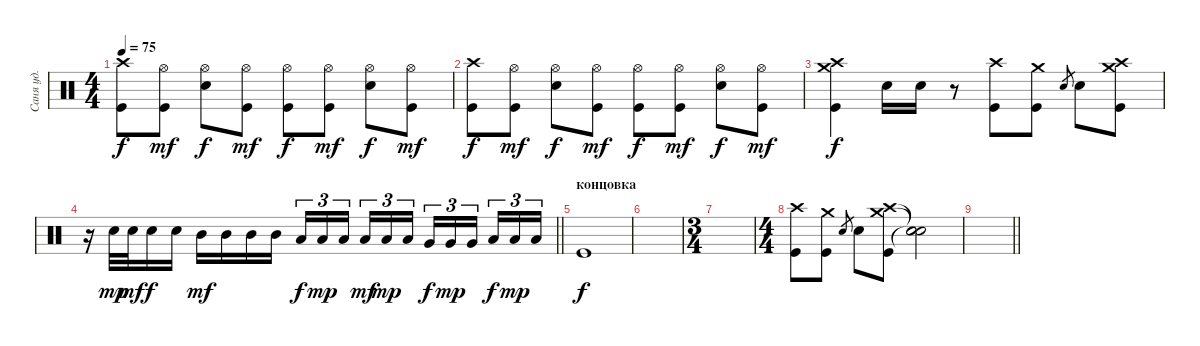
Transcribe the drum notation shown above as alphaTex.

\track ("Саня уд." "Саня уд.") {instrument percussion}
\staff {score}
\articulation defaults
\ts (4 4)
\tempo 75
\clef neutral
\ks c
("Kick (hit)" "Crash high (hit)").8{dy f} ("Kick (hit)" "Hi-Hat (open)").8{dy mf} ("Snare (hit) 2" "Hi-Hat (open)").8{dy f} ("Kick (hit)" "Hi-Hat (open)").8{dy mf} ("Kick (hit)" "Hi-Hat (open)").8{dy f} ("Kick (hit)" "Hi-Hat (open)").8{dy mf} ("Snare (hit) 2" "Hi-Hat (open)").8{dy f} ("Kick (hit)" "Hi-Hat (open)").8{dy mf} |
("Kick (hit)" "Crash high (hit)").8{dy f} ("Kick (hit)" "Hi-Hat (open)").8{dy mf} ("Snare (hit) 2" "Hi-Hat (open)").8{dy f} ("Kick (hit)" "Hi-Hat (open)").8{dy mf} ("Kick (hit)" "Hi-Hat (open)").8{dy f} ("Kick (hit)" "Hi-Hat (open)").8{dy mf} ("Snare (hit) 2" "Hi-Hat (open)").8{dy f} ("Kick (hit)" "Hi-Hat (open)").8{dy mf} |
("Crash high (hit)" "Crash medium (hit)" "Kick (hit)").4{dy f} "Snare (hit) 2".16 "Snare (hit) 2".16 r.8 ("Crash high (hit)" "Kick (hit)").8 ("Crash medium (hit)" "Kick (hit)").8 "Snare (hit) 2".8{gr} "Snare (hit) 2".8 ("Crash medium (hit)" "Crash high (hit)" "Kick (hit)").8 |
\barLineRight lightlight
r.16 "Snare (hit) 2".32{dy mp} "Snare (hit) 2".32{dy mf} "Snare (hit) 2".16{dy f} "Snare (hit) 2".16 "Mid Tom (hit)".16{dy mf} "Mid Tom (hit)".16 "Mid Tom (hit)".16 "Mid Tom (hit)".16 "Low Tom (hit)".16{tu (3 2) dy f} "Low Tom (hit)".16{tu (3 2) dy mp} "Low Tom (hit)".16{tu (3 2) beam splitsecondary} "Low Tom (hit)".16{tu (3 2) dy mf} "Low Tom (hit)".16{tu (3 2) dy mp} "Low Tom (hit)".16{tu (3 2)} "Very Low Tom (hit)".16{tu (3 2) dy f} "Very Low Tom (hit)".16{tu (3 2) dy mp} "Very Low Tom (hit)".16{tu (3 2) beam splitsecondary} "Low Floor Tom (hit)".16{tu (3 2) dy f} "Low Floor Tom (hit)".16{tu (3 2) dy mp} "Low Floor Tom (hit)".16{tu (3 2)} |
\section ("" "концовка")
"Kick (hit)".1{dy f} |
|
\ts (3 4)
|
\ts (4 4)
("Crash high (hit)" "Kick (hit)").8 ("Crash medium (hit)" "Kick (hit)").8 "Snare (hit) 2".8{gr} "Snare (hit) 2".8 ("Crash medium (hit)" "Crash high (hit)" "Kick (hit)").8 ("Snare (hit)"{t} "Snare (hit)"{t} "Snare (hit)"{t}).2 |
\barLineRight lightlight
